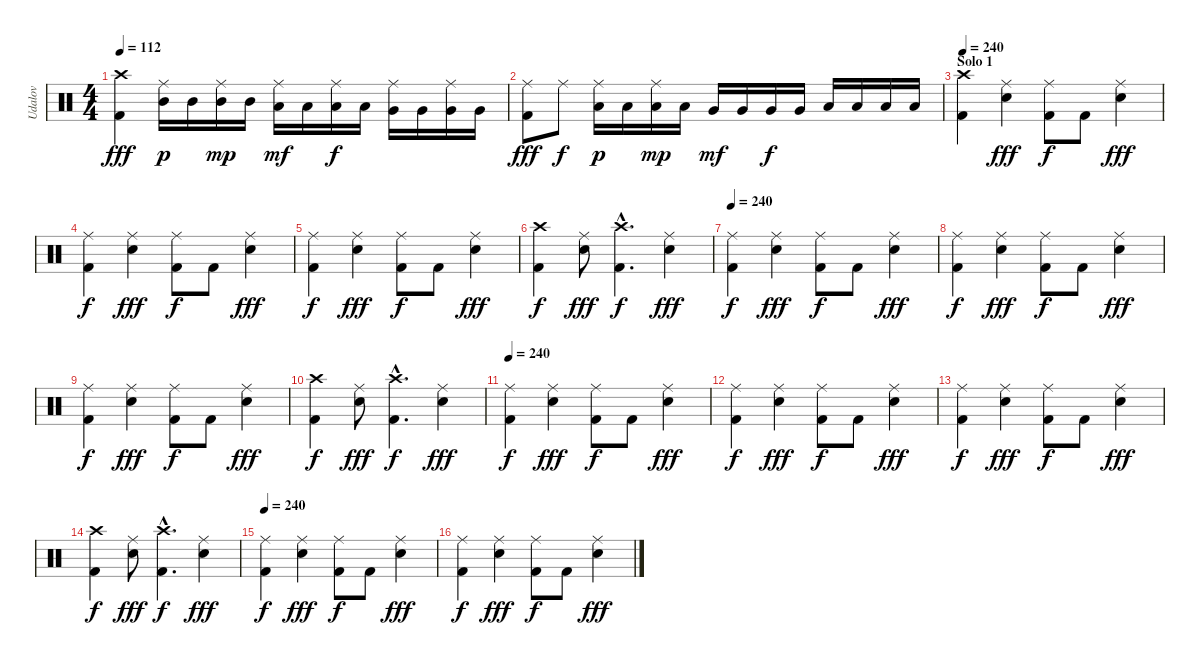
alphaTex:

\track ("Udalov" "Udalov") {instrument percussion}
\staff {score}
\articulation defaults
\ts (4 4)
\tempo 112
\clef neutral
\ks c
("Crash high (hit)" "Kick (hit) 2").4{dy fff} ("Ride (middle)" "Mid Tom (hit)").16{dy p} "Mid Tom (hit)".16 ("Ride (middle)" "Mid Tom (hit)").16{dy mp} "Mid Tom (hit)".16 ("Ride (middle)" "Low Tom (hit)").16{dy mf} "Low Tom (hit)".16 ("Ride (middle)" "Low Tom (hit)").16{dy f} "Low Tom (hit)".16 ("Ride (middle)" "Very Low Tom (hit)").16 "Very Low Tom (hit)".16 ("Ride (middle)" "Very Low Tom (hit)").16 "Very Low Tom (hit)".16 |
("Ride (middle)" "Kick (hit) 2").8{dy fff} "Ride (middle)".8{dy f} ("Ride (middle)" "Low Tom (hit)").16{dy p} "Low Tom (hit)".16 ("Ride (middle)" "Low Tom (hit)").16{dy mp} "Low Tom (hit)".16 "Very Low Tom (hit)".16{dy mf} "Very Low Tom (hit)".16 "Very Low Tom (hit)".16{dy f} "Very Low Tom (hit)".16 "Low Floor Tom (hit)".16 "Low Floor Tom (hit)".16 "Low Floor Tom (hit)".16 "Low Floor Tom (hit)".16 |
\section ("" "Solo 1")
\tempo 240
("Crash high (hit)" "Kick (hit) 2").4 ("Ride (middle)" "Electric Snare (hit)").4{dy fff} ("Ride (middle)" "Kick (hit) 2").8{dy f} "Kick (hit) 2".8 ("Ride (middle)" "Electric Snare (hit)").4{dy fff} |
("Ride (middle)" "Kick (hit) 2").4{dy f} ("Ride (middle)" "Electric Snare (hit)").4{dy fff} ("Ride (middle)" "Kick (hit) 2").8{dy f} "Kick (hit) 2".8 ("Ride (middle)" "Electric Snare (hit)").4{dy fff} |
("Ride (middle)" "Kick (hit) 2").4{dy f} ("Ride (middle)" "Electric Snare (hit)").4{dy fff} ("Ride (middle)" "Kick (hit) 2").8{dy f} "Kick (hit) 2".8 ("Ride (middle)" "Electric Snare (hit)").4{dy fff} |
("Crash high (hit)" "Kick (hit) 2").4{dy f} ("Ride (middle)" "Electric Snare (hit)").8{dy fff} ("Crash high (hit)"{hac} "Kick (hit) 2"{hac}).4{d dy f} ("Ride (middle)" "Electric Snare (hit)").4{dy fff} |
\tempo 240
("Ride (middle)" "Kick (hit) 2").4{dy f} ("Ride (middle)" "Electric Snare (hit)").4{dy fff} ("Ride (middle)" "Kick (hit) 2").8{dy f} "Kick (hit) 2".8 ("Ride (middle)" "Electric Snare (hit)").4{dy fff} |
("Ride (middle)" "Kick (hit) 2").4{dy f} ("Ride (middle)" "Electric Snare (hit)").4{dy fff} ("Ride (middle)" "Kick (hit) 2").8{dy f} "Kick (hit) 2".8 ("Ride (middle)" "Electric Snare (hit)").4{dy fff} |
("Ride (middle)" "Kick (hit) 2").4{dy f} ("Ride (middle)" "Electric Snare (hit)").4{dy fff} ("Ride (middle)" "Kick (hit) 2").8{dy f} "Kick (hit) 2".8 ("Ride (middle)" "Electric Snare (hit)").4{dy fff} |
("Crash high (hit)" "Kick (hit) 2").4{dy f} ("Ride (middle)" "Electric Snare (hit)").8{dy fff} ("Crash high (hit)"{hac} "Kick (hit) 2"{hac}).4{d dy f} ("Ride (middle)" "Electric Snare (hit)").4{dy fff} |
\tempo 240
("Ride (middle)" "Kick (hit) 2").4{dy f} ("Ride (middle)" "Electric Snare (hit)").4{dy fff} ("Ride (middle)" "Kick (hit) 2").8{dy f} "Kick (hit) 2".8 ("Ride (middle)" "Electric Snare (hit)").4{dy fff} |
("Ride (middle)" "Kick (hit) 2").4{dy f} ("Ride (middle)" "Electric Snare (hit)").4{dy fff} ("Ride (middle)" "Kick (hit) 2").8{dy f} "Kick (hit) 2".8 ("Ride (middle)" "Electric Snare (hit)").4{dy fff} |
("Ride (middle)" "Kick (hit) 2").4{dy f} ("Ride (middle)" "Electric Snare (hit)").4{dy fff} ("Ride (middle)" "Kick (hit) 2").8{dy f} "Kick (hit) 2".8 ("Ride (middle)" "Electric Snare (hit)").4{dy fff} |
("Crash high (hit)" "Kick (hit) 2").4{dy f} ("Ride (middle)" "Electric Snare (hit)").8{dy fff} ("Crash high (hit)"{hac} "Kick (hit) 2"{hac}).4{d dy f} ("Ride (middle)" "Electric Snare (hit)").4{dy fff} |
\tempo 240
("Ride (middle)" "Kick (hit) 2").4{dy f} ("Ride (middle)" "Electric Snare (hit)").4{dy fff} ("Ride (middle)" "Kick (hit) 2").8{dy f} "Kick (hit) 2".8 ("Ride (middle)" "Electric Snare (hit)").4{dy fff} |
("Ride (middle)" "Kick (hit) 2").4{dy f} ("Ride (middle)" "Electric Snare (hit)").4{dy fff} ("Ride (middle)" "Kick (hit) 2").8{dy f} "Kick (hit) 2".8 ("Ride (middle)" "Electric Snare (hit)").4{dy fff}
